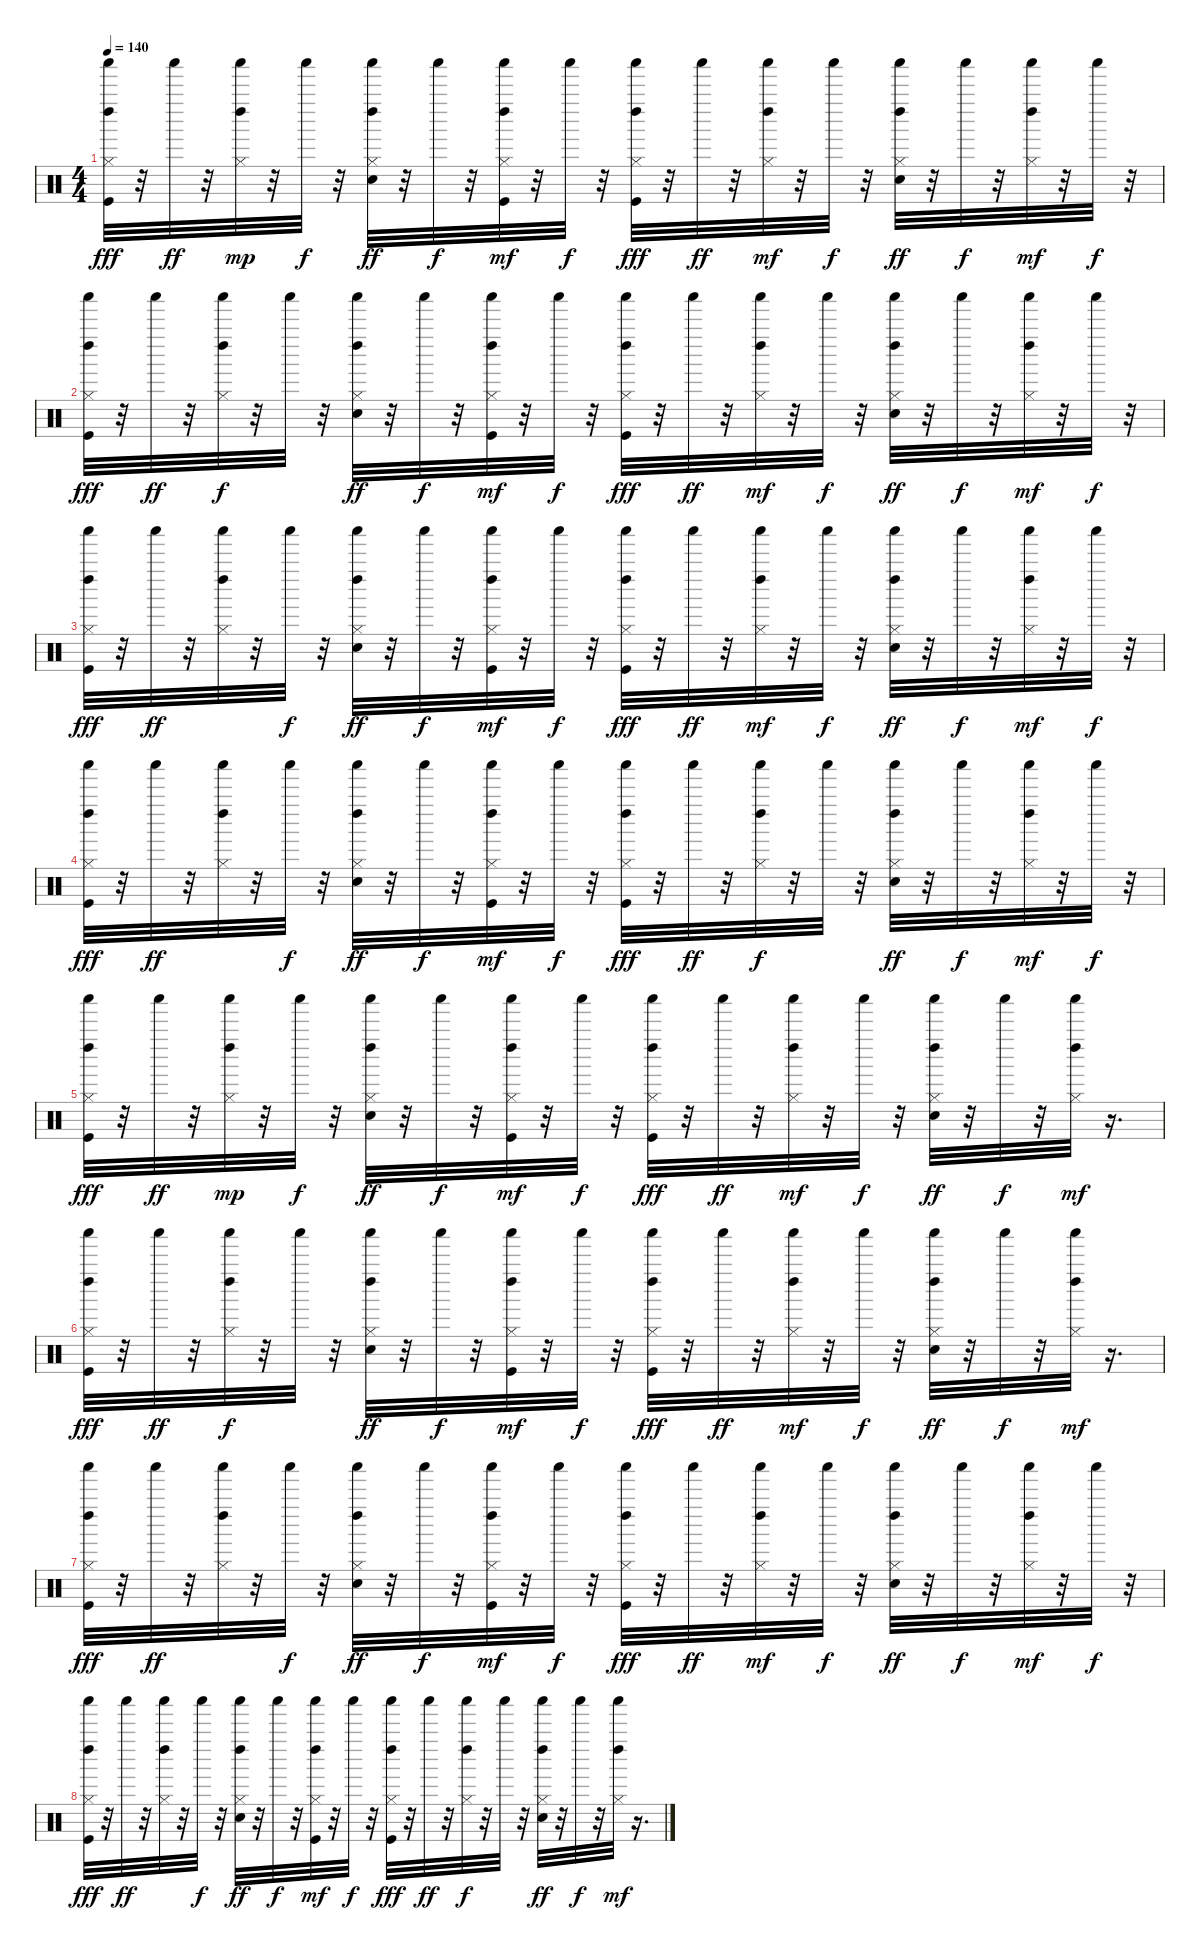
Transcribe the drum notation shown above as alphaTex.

\track "" {instrument percussion}
\staff {score}
\articulation defaults
\ts (4 4)
\tempo 140
\clef neutral
\ks c
("Kick (hit)" "Hi-Hat (closed)" "Left Maraca (hit)" "Shaker (hit)").32{dy fff} r.32 "Shaker (hit)".32{dy ff} r.32 ("Hi-Hat (closed)" "Left Maraca (hit)" "Shaker (hit)").32{dy mp} r.32 "Shaker (hit)".32{dy f} r.32 ("Electric Snare (hit)" "Hi-Hat (closed)" "Left Maraca (hit)" "Shaker (hit)").32{dy ff} r.32 "Shaker (hit)".32{dy f} r.32 ("Kick (hit)" "Hi-Hat (closed)" "Left Maraca (hit)" "Shaker (hit)").32{dy mf} r.32 "Shaker (hit)".32{dy f} r.32 ("Kick (hit)" "Hi-Hat (closed)" "Left Maraca (hit)" "Shaker (hit)").32{dy fff} r.32 "Shaker (hit)".32{dy ff} r.32 ("Hi-Hat (closed)" "Left Maraca (hit)" "Shaker (hit)").32{dy mf} r.32 "Shaker (hit)".32{dy f} r.32 ("Electric Snare (hit)" "Hi-Hat (closed)" "Left Maraca (hit)" "Shaker (hit)").32{dy ff} r.32 "Shaker (hit)".32{dy f} r.32 ("Hi-Hat (closed)" "Left Maraca (hit)" "Shaker (hit)").32{dy mf} r.32 "Shaker (hit)".32{dy f} r.32 |
("Kick (hit)" "Hi-Hat (closed)" "Left Maraca (hit)" "Shaker (hit)").32{dy fff} r.32 "Shaker (hit)".32{dy ff} r.32 ("Hi-Hat (closed)" "Left Maraca (hit)" "Shaker (hit)").32{dy f} r.32 "Shaker (hit)".32 r.32 ("Electric Snare (hit)" "Hi-Hat (closed)" "Left Maraca (hit)" "Shaker (hit)").32{dy ff} r.32 "Shaker (hit)".32{dy f} r.32 ("Kick (hit)" "Hi-Hat (closed)" "Left Maraca (hit)" "Shaker (hit)").32{dy mf} r.32 "Shaker (hit)".32{dy f} r.32 ("Kick (hit)" "Hi-Hat (closed)" "Left Maraca (hit)" "Shaker (hit)").32{dy fff} r.32 "Shaker (hit)".32{dy ff} r.32 ("Hi-Hat (closed)" "Left Maraca (hit)" "Shaker (hit)").32{dy mf} r.32 "Shaker (hit)".32{dy f} r.32 ("Electric Snare (hit)" "Hi-Hat (closed)" "Left Maraca (hit)" "Shaker (hit)").32{dy ff} r.32 "Shaker (hit)".32{dy f} r.32 ("Hi-Hat (closed)" "Left Maraca (hit)" "Shaker (hit)").32{dy mf} r.32 "Shaker (hit)".32{dy f} r.32 |
("Kick (hit)" "Hi-Hat (closed)" "Left Maraca (hit)" "Shaker (hit)").32{dy fff} r.32 "Shaker (hit)".32{dy ff} r.32 ("Hi-Hat (closed)" "Left Maraca (hit)" "Shaker (hit)").32 r.32 "Shaker (hit)".32{dy f} r.32 ("Electric Snare (hit)" "Hi-Hat (closed)" "Left Maraca (hit)" "Shaker (hit)").32{dy ff} r.32 "Shaker (hit)".32{dy f} r.32 ("Kick (hit)" "Hi-Hat (closed)" "Left Maraca (hit)" "Shaker (hit)").32{dy mf} r.32 "Shaker (hit)".32{dy f} r.32 ("Kick (hit)" "Hi-Hat (closed)" "Left Maraca (hit)" "Shaker (hit)").32{dy fff} r.32 "Shaker (hit)".32{dy ff} r.32 ("Hi-Hat (closed)" "Left Maraca (hit)" "Shaker (hit)").32{dy mf} r.32 "Shaker (hit)".32{dy f} r.32 ("Electric Snare (hit)" "Hi-Hat (closed)" "Left Maraca (hit)" "Shaker (hit)").32{dy ff} r.32 "Shaker (hit)".32{dy f} r.32 ("Hi-Hat (closed)" "Left Maraca (hit)" "Shaker (hit)").32{dy mf} r.32 "Shaker (hit)".32{dy f} r.32 |
("Kick (hit)" "Hi-Hat (closed)" "Left Maraca (hit)" "Shaker (hit)").32{dy fff} r.32 "Shaker (hit)".32{dy ff} r.32 ("Hi-Hat (closed)" "Left Maraca (hit)" "Shaker (hit)").32 r.32 "Shaker (hit)".32{dy f} r.32 ("Electric Snare (hit)" "Hi-Hat (closed)" "Left Maraca (hit)" "Shaker (hit)").32{dy ff} r.32 "Shaker (hit)".32{dy f} r.32 ("Kick (hit)" "Hi-Hat (closed)" "Left Maraca (hit)" "Shaker (hit)").32{dy mf} r.32 "Shaker (hit)".32{dy f} r.32 ("Kick (hit)" "Hi-Hat (closed)" "Left Maraca (hit)" "Shaker (hit)").32{dy fff} r.32 "Shaker (hit)".32{dy ff} r.32 ("Hi-Hat (closed)" "Left Maraca (hit)" "Shaker (hit)").32{dy f} r.32 "Shaker (hit)".32 r.32 ("Electric Snare (hit)" "Hi-Hat (closed)" "Left Maraca (hit)" "Shaker (hit)").32{dy ff} r.32 "Shaker (hit)".32{dy f} r.32 ("Hi-Hat (closed)" "Left Maraca (hit)" "Shaker (hit)").32{dy mf} r.32 "Shaker (hit)".32{dy f} r.32 |
("Kick (hit)" "Hi-Hat (closed)" "Left Maraca (hit)" "Shaker (hit)").32{dy fff} r.32 "Shaker (hit)".32{dy ff} r.32 ("Hi-Hat (closed)" "Left Maraca (hit)" "Shaker (hit)").32{dy mp} r.32 "Shaker (hit)".32{dy f} r.32 ("Electric Snare (hit)" "Hi-Hat (closed)" "Left Maraca (hit)" "Shaker (hit)").32{dy ff} r.32 "Shaker (hit)".32{dy f} r.32 ("Kick (hit)" "Hi-Hat (closed)" "Left Maraca (hit)" "Shaker (hit)").32{dy mf} r.32 "Shaker (hit)".32{dy f} r.32 ("Kick (hit)" "Hi-Hat (closed)" "Left Maraca (hit)" "Shaker (hit)").32{dy fff} r.32 "Shaker (hit)".32{dy ff} r.32 ("Hi-Hat (closed)" "Left Maraca (hit)" "Shaker (hit)").32{dy mf} r.32 "Shaker (hit)".32{dy f} r.32 ("Electric Snare (hit)" "Hi-Hat (closed)" "Left Maraca (hit)" "Shaker (hit)").32{dy ff} r.32 "Shaker (hit)".32{dy f} r.32 ("Hi-Hat (closed)" "Left Maraca (hit)" "Shaker (hit)").32{dy mf} r.16{d} |
("Kick (hit)" "Hi-Hat (closed)" "Left Maraca (hit)" "Shaker (hit)").32{dy fff} r.32 "Shaker (hit)".32{dy ff} r.32 ("Hi-Hat (closed)" "Left Maraca (hit)" "Shaker (hit)").32{dy f} r.32 "Shaker (hit)".32 r.32 ("Electric Snare (hit)" "Hi-Hat (closed)" "Left Maraca (hit)" "Shaker (hit)").32{dy ff} r.32 "Shaker (hit)".32{dy f} r.32 ("Kick (hit)" "Hi-Hat (closed)" "Left Maraca (hit)" "Shaker (hit)").32{dy mf} r.32 "Shaker (hit)".32{dy f} r.32 ("Kick (hit)" "Hi-Hat (closed)" "Left Maraca (hit)" "Shaker (hit)").32{dy fff} r.32 "Shaker (hit)".32{dy ff} r.32 ("Hi-Hat (closed)" "Left Maraca (hit)" "Shaker (hit)").32{dy mf} r.32 "Shaker (hit)".32{dy f} r.32 ("Electric Snare (hit)" "Hi-Hat (closed)" "Left Maraca (hit)" "Shaker (hit)").32{dy ff} r.32 "Shaker (hit)".32{dy f} r.32 ("Hi-Hat (closed)" "Left Maraca (hit)" "Shaker (hit)").32{dy mf} r.16{d} |
("Kick (hit)" "Hi-Hat (closed)" "Left Maraca (hit)" "Shaker (hit)").32{dy fff} r.32 "Shaker (hit)".32{dy ff} r.32 ("Hi-Hat (closed)" "Left Maraca (hit)" "Shaker (hit)").32 r.32 "Shaker (hit)".32{dy f} r.32 ("Electric Snare (hit)" "Hi-Hat (closed)" "Left Maraca (hit)" "Shaker (hit)").32{dy ff} r.32 "Shaker (hit)".32{dy f} r.32 ("Kick (hit)" "Hi-Hat (closed)" "Left Maraca (hit)" "Shaker (hit)").32{dy mf} r.32 "Shaker (hit)".32{dy f} r.32 ("Kick (hit)" "Hi-Hat (closed)" "Left Maraca (hit)" "Shaker (hit)").32{dy fff} r.32 "Shaker (hit)".32{dy ff} r.32 ("Hi-Hat (closed)" "Left Maraca (hit)" "Shaker (hit)").32{dy mf} r.32 "Shaker (hit)".32{dy f} r.32 ("Electric Snare (hit)" "Hi-Hat (closed)" "Left Maraca (hit)" "Shaker (hit)").32{dy ff} r.32 "Shaker (hit)".32{dy f} r.32 ("Hi-Hat (closed)" "Left Maraca (hit)" "Shaker (hit)").32{dy mf} r.32 "Shaker (hit)".32{dy f} r.32 |
("Kick (hit)" "Hi-Hat (closed)" "Left Maraca (hit)" "Shaker (hit)").32{dy fff} r.32 "Shaker (hit)".32{dy ff} r.32 ("Hi-Hat (closed)" "Left Maraca (hit)" "Shaker (hit)").32 r.32 "Shaker (hit)".32{dy f} r.32 ("Electric Snare (hit)" "Hi-Hat (closed)" "Left Maraca (hit)" "Shaker (hit)").32{dy ff} r.32 "Shaker (hit)".32{dy f} r.32 ("Kick (hit)" "Hi-Hat (closed)" "Left Maraca (hit)" "Shaker (hit)").32{dy mf} r.32 "Shaker (hit)".32{dy f} r.32 ("Kick (hit)" "Hi-Hat (closed)" "Left Maraca (hit)" "Shaker (hit)").32{dy fff} r.32 "Shaker (hit)".32{dy ff} r.32 ("Hi-Hat (closed)" "Left Maraca (hit)" "Shaker (hit)").32{dy f} r.32 "Shaker (hit)".32 r.32 ("Electric Snare (hit)" "Hi-Hat (closed)" "Left Maraca (hit)" "Shaker (hit)").32{dy ff} r.32 "Shaker (hit)".32{dy f} r.32 ("Hi-Hat (closed)" "Left Maraca (hit)" "Shaker (hit)").32{dy mf} r.16{d}
